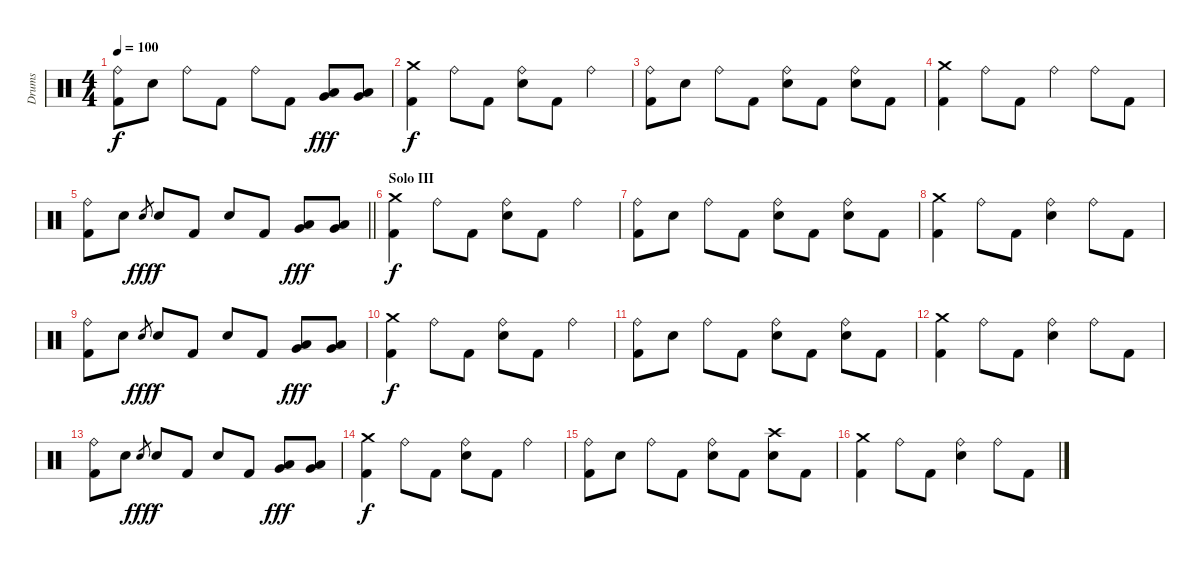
\track ("Drums" "Drums") {instrument percussion}
\staff {score}
\articulation defaults
\ts (4 4)
\tempo 100
\clef neutral
\ks c
("Ride (bell)" "Kick (hit) 2").8{dy f} "Electric Snare (hit)".8 "Ride (bell)".8 "Kick (hit) 2".8 "Ride (bell)".8 "Kick (hit) 2".8 ("Low Tom (hit)" "Very Low Tom (hit)").8{dy fff} ("Very Low Tom (hit)" "Low Floor Tom (hit)").8 |
("Crash medium (hit)" "Kick (hit) 2").4{dy f} "Ride (bell)".8 "Kick (hit) 2".8 ("Ride (bell)" "Electric Snare (hit)").8 "Kick (hit) 2".8 "Ride (bell)".4 |
("Ride (bell)" "Kick (hit) 2").8 "Electric Snare (hit)".8 "Ride (bell)".8 "Kick (hit) 2".8 ("Ride (bell)" "Electric Snare (hit)").8 "Kick (hit) 2".8 ("Ride (bell)" "Electric Snare (hit)").8 "Kick (hit) 2".8 |
("Crash medium (hit)" "Kick (hit) 2").4 "Ride (bell)".8 "Kick (hit) 2".8 "Ride (bell)".4 "Ride (bell)".8 "Kick (hit) 2".8 |
\barLineRight lightlight
("Ride (bell)" "Kick (hit) 2").8 "Electric Snare (hit)".8 "Electric Snare (hit)".8{gr dy fff} "Electric Snare (hit)".8{dy f} "Kick (hit) 2".8 "Electric Snare (hit)".8 "Kick (hit) 2".8 ("Low Tom (hit)" "Very Low Tom (hit)").8{dy fff} ("Low Tom (hit)" "Very Low Tom (hit)").8 |
\section ("" "Solo III")
("Crash medium (hit)" "Kick (hit) 2").4{dy f} "Ride (bell)".8 "Kick (hit) 2".8 ("Ride (bell)" "Electric Snare (hit)").8 "Kick (hit) 2".8 "Ride (bell)".4 |
("Ride (bell)" "Kick (hit) 2").8 "Electric Snare (hit)".8 "Ride (bell)".8 "Kick (hit) 2".8 ("Ride (bell)" "Electric Snare (hit)").8 "Kick (hit) 2".8 ("Ride (bell)" "Electric Snare (hit)").8 "Kick (hit) 2".8 |
("Crash medium (hit)" "Kick (hit) 2").4 "Ride (bell)".8 "Kick (hit) 2".8 ("Ride (bell)" "Electric Snare (hit)").4 "Ride (bell)".8 "Kick (hit) 2".8 |
("Ride (bell)" "Kick (hit) 2").8 "Electric Snare (hit)".8 "Electric Snare (hit)".8{gr dy fff} "Electric Snare (hit)".8{dy f} "Kick (hit) 2".8 "Electric Snare (hit)".8 "Kick (hit) 2".8 ("Low Tom (hit)" "Very Low Tom (hit)").8{dy fff} ("Low Tom (hit)" "Very Low Tom (hit)").8 |
("Crash medium (hit)" "Kick (hit) 2").4{dy f} "Ride (bell)".8 "Kick (hit) 2".8 ("Ride (bell)" "Electric Snare (hit)").8 "Kick (hit) 2".8 "Ride (bell)".4 |
("Ride (bell)" "Kick (hit) 2").8 "Electric Snare (hit)".8 "Ride (bell)".8 "Kick (hit) 2".8 ("Ride (bell)" "Electric Snare (hit)").8 "Kick (hit) 2".8 ("Ride (bell)" "Electric Snare (hit)").8 "Kick (hit) 2".8 |
("Crash medium (hit)" "Kick (hit) 2").4 "Ride (bell)".8 "Kick (hit) 2".8 ("Ride (bell)" "Electric Snare (hit)").4 "Ride (bell)".8 "Kick (hit) 2".8 |
("Ride (bell)" "Kick (hit) 2").8 "Electric Snare (hit)".8 "Electric Snare (hit)".8{gr dy fff} "Electric Snare (hit)".8{dy f} "Kick (hit) 2".8 "Electric Snare (hit)".8 "Kick (hit) 2".8 ("Low Tom (hit)" "Very Low Tom (hit)").8{dy fff} ("Low Tom (hit)" "Very Low Tom (hit)").8 |
("Crash medium (hit)" "Kick (hit) 2").4{dy f} "Ride (bell)".8 "Kick (hit) 2".8 ("Ride (bell)" "Electric Snare (hit)").8 "Kick (hit) 2".8 "Ride (bell)".4 |
("Ride (bell)" "Kick (hit) 2").8 "Electric Snare (hit)".8 "Ride (bell)".8 "Kick (hit) 2".8 ("Ride (bell)" "Electric Snare (hit)").8 "Kick (hit) 2".8 ("Crash high (hit)" "Electric Snare (hit)").8 "Kick (hit) 2".8 |
("Crash medium (hit)" "Kick (hit) 2").4 "Ride (bell)".8 "Kick (hit) 2".8 ("Ride (bell)" "Electric Snare (hit)").4 "Ride (bell)".8 "Kick (hit) 2".8
